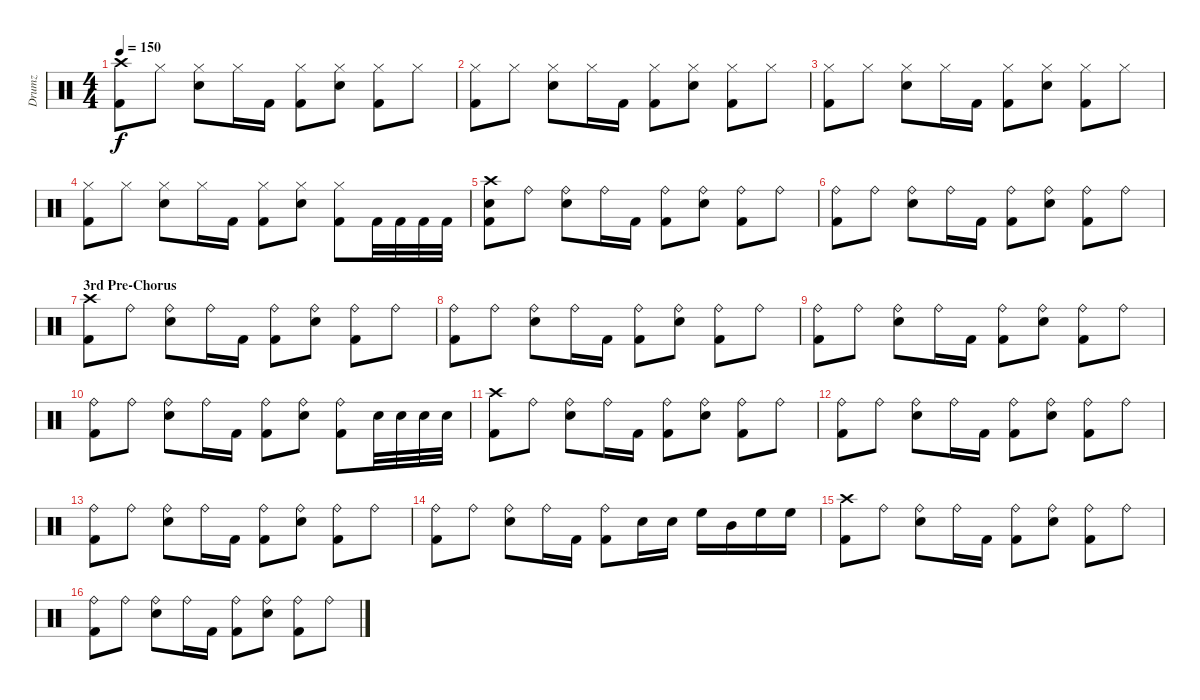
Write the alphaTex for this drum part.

\track ("Drumz" "Drumz") {instrument percussion}
\staff {score}
\articulation defaults
\ts (4 4)
\tempo 150
\clef neutral
\ks c
("Crash high (hit)" "Kick (hit) 2").8{dy f} "Hi-Hat (closed)".8 ("Hi-Hat (closed)" "Snare (hit) 2").8 "Hi-Hat (closed)".16 "Kick (hit) 2".16 ("Hi-Hat (closed)" "Kick (hit) 2").8 ("Hi-Hat (closed)" "Snare (hit) 2").8 ("Hi-Hat (closed)" "Kick (hit) 2").8 "Hi-Hat (closed)".8 |
("Hi-Hat (closed)" "Kick (hit) 2").8 "Hi-Hat (closed)".8 ("Hi-Hat (closed)" "Snare (hit) 2").8 "Hi-Hat (closed)".16 "Kick (hit) 2".16 ("Hi-Hat (closed)" "Kick (hit) 2").8 ("Hi-Hat (closed)" "Snare (hit) 2").8 ("Hi-Hat (closed)" "Kick (hit) 2").8 "Hi-Hat (closed)".8 |
("Hi-Hat (closed)" "Kick (hit) 2").8 "Hi-Hat (closed)".8 ("Hi-Hat (closed)" "Snare (hit) 2").8 "Hi-Hat (closed)".16 "Kick (hit) 2".16 ("Hi-Hat (closed)" "Kick (hit) 2").8 ("Hi-Hat (closed)" "Snare (hit) 2").8 ("Hi-Hat (closed)" "Kick (hit) 2").8 "Hi-Hat (closed)".8 |
("Hi-Hat (closed)" "Kick (hit) 2").8 "Hi-Hat (closed)".8 ("Hi-Hat (closed)" "Snare (hit) 2").8 "Hi-Hat (closed)".16 "Kick (hit) 2".16 ("Hi-Hat (closed)" "Kick (hit) 2").8 ("Hi-Hat (closed)" "Snare (hit) 2").8 ("Hi-Hat (closed)" "Kick (hit) 2").8 "Kick (hit) 2".32 "Kick (hit) 2".32 "Kick (hit) 2".32 "Kick (hit) 2".32 |
("Crash high (hit)" "Snare (hit) 2" "Kick (hit) 2").8 "Ride (bell)".8 ("Ride (bell)" "Snare (hit) 2").8 "Ride (bell)".16 "Kick (hit) 2".16 ("Ride (bell)" "Kick (hit) 2").8 ("Ride (bell)" "Snare (hit) 2").8 ("Ride (bell)" "Kick (hit) 2").8 "Ride (bell)".8 |
("Ride (bell)" "Kick (hit) 2").8 "Ride (bell)".8 ("Ride (bell)" "Snare (hit) 2").8 "Ride (bell)".16 "Kick (hit) 2".16 ("Ride (bell)" "Kick (hit) 2").8 ("Ride (bell)" "Snare (hit) 2").8 ("Ride (bell)" "Kick (hit) 2").8 "Ride (bell)".8 |
\section ("" "3rd Pre-Chorus")
("Crash high (hit)" "Kick (hit) 2").8 "Ride (bell)".8 ("Ride (bell)" "Snare (hit) 2").8 "Ride (bell)".16 "Kick (hit) 2".16 ("Ride (bell)" "Kick (hit) 2").8 ("Ride (bell)" "Snare (hit) 2").8 ("Ride (bell)" "Kick (hit) 2").8 "Ride (bell)".8 |
("Ride (bell)" "Kick (hit) 2").8 "Ride (bell)".8 ("Ride (bell)" "Snare (hit) 2").8 "Ride (bell)".16 "Kick (hit) 2".16 ("Ride (bell)" "Kick (hit) 2").8 ("Ride (bell)" "Snare (hit) 2").8 ("Ride (bell)" "Kick (hit) 2").8 "Ride (bell)".8 |
("Ride (bell)" "Kick (hit) 2").8 "Ride (bell)".8 ("Ride (bell)" "Snare (hit) 2").8 "Ride (bell)".16 "Kick (hit) 2".16 ("Ride (bell)" "Kick (hit) 2").8 ("Ride (bell)" "Snare (hit) 2").8 ("Ride (bell)" "Kick (hit) 2").8 "Ride (bell)".8 |
("Ride (bell)" "Kick (hit) 2").8 "Ride (bell)".8 ("Ride (bell)" "Snare (hit) 2").8 "Ride (bell)".16 "Kick (hit) 2".16 ("Ride (bell)" "Kick (hit) 2").8 ("Ride (bell)" "Snare (hit) 2").8 ("Ride (bell)" "Kick (hit) 2").8 "Snare (hit) 2".32 "Snare (hit) 2".32 "Snare (hit) 2".32 "Snare (hit) 2".32 |
("Crash high (hit)" "Kick (hit) 2").8 "Ride (bell)".8 ("Ride (bell)" "Snare (hit) 2").8 "Ride (bell)".16 "Kick (hit) 2".16 ("Ride (bell)" "Kick (hit) 2").8 ("Ride (bell)" "Snare (hit) 2").8 ("Ride (bell)" "Kick (hit) 2").8 "Ride (bell)".8 |
("Ride (bell)" "Kick (hit) 2").8 "Ride (bell)".8 ("Ride (bell)" "Snare (hit) 2").8 "Ride (bell)".16 "Kick (hit) 2".16 ("Ride (bell)" "Kick (hit) 2").8 ("Ride (bell)" "Snare (hit) 2").8 ("Ride (bell)" "Kick (hit) 2").8 "Ride (bell)".8 |
("Ride (bell)" "Kick (hit) 2").8 "Ride (bell)".8 ("Ride (bell)" "Snare (hit) 2").8 "Ride (bell)".16 "Kick (hit) 2".16 ("Ride (bell)" "Kick (hit) 2").8 ("Ride (bell)" "Snare (hit) 2").8 ("Ride (bell)" "Kick (hit) 2").8 "Ride (bell)".8 |
("Ride (bell)" "Kick (hit) 2").8 "Ride (bell)".8 ("Ride (bell)" "Snare (hit) 2").8 "Ride (bell)".16 "Kick (hit) 2".16 ("Ride (bell)" "Kick (hit) 2").8 "Snare (hit) 2".16 "Snare (hit) 2".16 "High Floor Tom (hit)".16 "Mid Tom (hit)".16 "High Floor Tom (hit)".16 "High Floor Tom (hit)".16 |
("Crash high (hit)" "Kick (hit) 2").8 "Ride (bell)".8 ("Ride (bell)" "Snare (hit) 2").8 "Ride (bell)".16 "Kick (hit) 2".16 ("Ride (bell)" "Kick (hit) 2").8 ("Ride (bell)" "Snare (hit) 2").8 ("Ride (bell)" "Kick (hit) 2").8 "Ride (bell)".8 |
("Ride (bell)" "Kick (hit) 2").8 "Ride (bell)".8 ("Ride (bell)" "Snare (hit) 2").8 "Ride (bell)".16 "Kick (hit) 2".16 ("Ride (bell)" "Kick (hit) 2").8 ("Ride (bell)" "Snare (hit) 2").8 ("Ride (bell)" "Kick (hit) 2").8 "Ride (bell)".8
